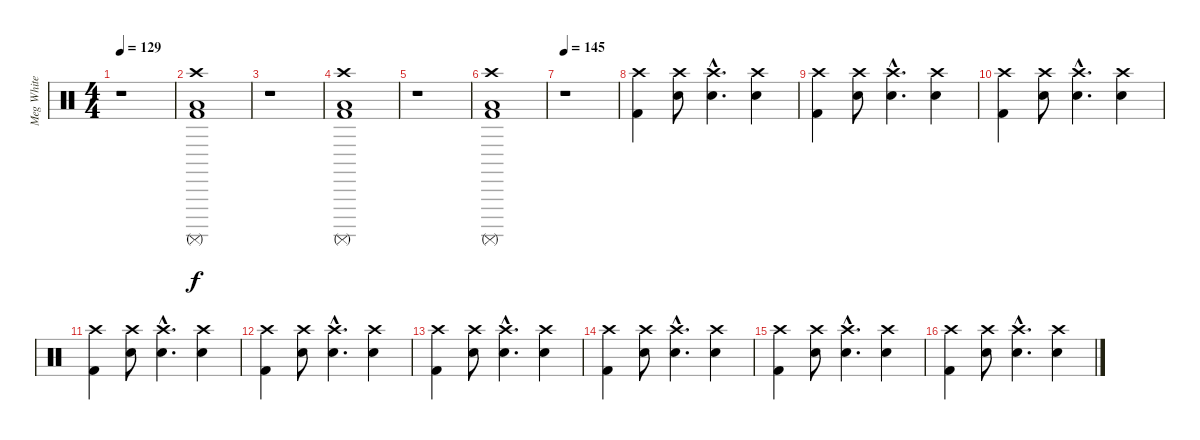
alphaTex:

\track ("Meg White" "Meg White") {instrument percussion}
\staff {score}
\articulation defaults
\ts (4 4)
\tempo 129
\clef neutral
\ks c
r.1{dy f} |
("Crash high (hit)" "Low Tom (hit)" "Surdo (mute)" "Kick (hit) 2").1 |
r.1 |
("Crash high (hit)" "Low Tom (hit)" "Surdo (mute)" "Kick (hit) 2").1 |
r.1 |
("Crash high (hit)" "Low Tom (hit)" "Surdo (mute)" "Kick (hit) 2").1 |
\tempo 145
r.1 |
("Crash high (hit)" "Kick (hit) 2").4 ("Crash high (hit)" "Electric Snare (hit)").8 ("Crash high (hit)"{hac} "Electric Snare (hit)"{hac}).4{d} ("Crash high (hit)" "Electric Snare (hit)").4 |
("Crash high (hit)" "Kick (hit) 2").4 ("Crash high (hit)" "Electric Snare (hit)").8 ("Crash high (hit)"{hac} "Electric Snare (hit)"{hac}).4{d} ("Crash high (hit)" "Electric Snare (hit)").4 |
("Crash high (hit)" "Kick (hit) 2").4 ("Crash high (hit)" "Electric Snare (hit)").8 ("Crash high (hit)"{hac} "Electric Snare (hit)"{hac}).4{d} ("Crash high (hit)" "Electric Snare (hit)").4 |
("Crash high (hit)" "Kick (hit) 2").4 ("Crash high (hit)" "Electric Snare (hit)").8 ("Crash high (hit)"{hac} "Electric Snare (hit)"{hac}).4{d} ("Crash high (hit)" "Electric Snare (hit)").4 |
("Crash high (hit)" "Kick (hit) 2").4 ("Crash high (hit)" "Electric Snare (hit)").8 ("Crash high (hit)"{hac} "Electric Snare (hit)"{hac}).4{d} ("Crash high (hit)" "Electric Snare (hit)").4 |
("Crash high (hit)" "Kick (hit) 2").4 ("Crash high (hit)" "Electric Snare (hit)").8 ("Crash high (hit)"{hac} "Electric Snare (hit)"{hac}).4{d} ("Crash high (hit)" "Electric Snare (hit)").4 |
("Crash high (hit)" "Kick (hit) 2").4 ("Crash high (hit)" "Electric Snare (hit)").8 ("Crash high (hit)"{hac} "Electric Snare (hit)"{hac}).4{d} ("Crash high (hit)" "Electric Snare (hit)").4 |
("Crash high (hit)" "Kick (hit) 2").4 ("Crash high (hit)" "Electric Snare (hit)").8 ("Crash high (hit)"{hac} "Electric Snare (hit)"{hac}).4{d} ("Crash high (hit)" "Electric Snare (hit)").4 |
("Crash high (hit)" "Kick (hit) 2").4 ("Crash high (hit)" "Electric Snare (hit)").8 ("Crash high (hit)"{hac} "Electric Snare (hit)"{hac}).4{d} ("Crash high (hit)" "Electric Snare (hit)").4
